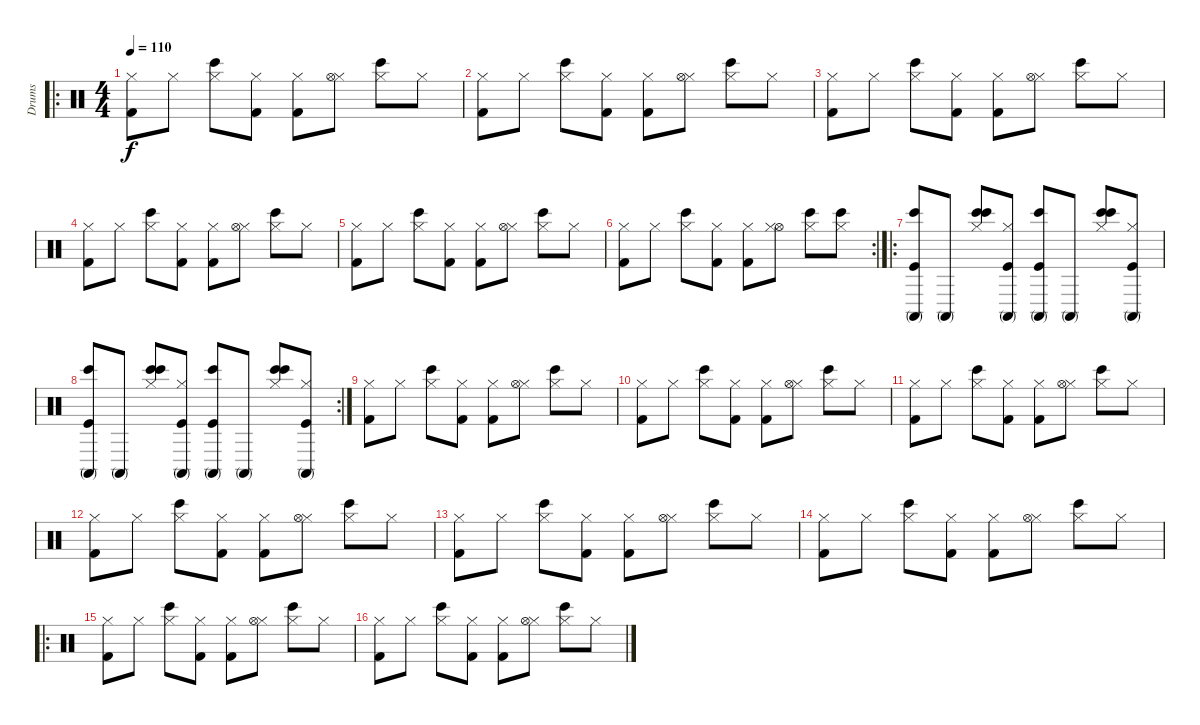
\track ("Drums" "Drums") {instrument percussion}
\staff {score}
\articulation defaults
\ro
\ts (4 4)
\tempo 110
\clef neutral
\ks c
("Kick (hit) 2" "Hi-Hat (closed)").8{dy f} "Hi-Hat (closed)".8 ("Bongo High (hit)" "Hi-Hat (closed)").8 ("Kick (hit) 2" "Hi-Hat (closed)").8 ("Kick (hit) 2" "Hi-Hat (closed)").8 ("Hi-Hat (closed)" "Hi-Hat (open)").8 ("Bongo High (hit)" "Hi-Hat (closed)").8 "Hi-Hat (closed)".8 |
("Kick (hit) 2" "Hi-Hat (closed)").8 "Hi-Hat (closed)".8 ("Bongo High (hit)" "Hi-Hat (closed)").8 ("Kick (hit) 2" "Hi-Hat (closed)").8 ("Kick (hit) 2" "Hi-Hat (closed)").8 ("Hi-Hat (closed)" "Hi-Hat (open)").8 ("Bongo High (hit)" "Hi-Hat (closed)").8 "Hi-Hat (closed)".8 |
("Kick (hit) 2" "Hi-Hat (closed)").8 "Hi-Hat (closed)".8 ("Bongo High (hit)" "Hi-Hat (closed)").8 ("Kick (hit) 2" "Hi-Hat (closed)").8 ("Kick (hit) 2" "Hi-Hat (closed)").8 ("Hi-Hat (closed)" "Hi-Hat (open)").8 ("Bongo High (hit)" "Hi-Hat (closed)").8 "Hi-Hat (closed)".8 |
("Kick (hit) 2" "Hi-Hat (closed)").8 "Hi-Hat (closed)".8 ("Bongo High (hit)" "Hi-Hat (closed)").8 ("Kick (hit) 2" "Hi-Hat (closed)").8 ("Kick (hit) 2" "Hi-Hat (closed)").8 ("Hi-Hat (closed)" "Hi-Hat (open)").8 ("Bongo High (hit)" "Hi-Hat (closed)").8 "Hi-Hat (closed)".8 |
("Kick (hit) 2" "Hi-Hat (closed)").8 "Hi-Hat (closed)".8 ("Bongo High (hit)" "Hi-Hat (closed)").8 ("Kick (hit) 2" "Hi-Hat (closed)").8 ("Kick (hit) 2" "Hi-Hat (closed)").8 ("Hi-Hat (closed)" "Hi-Hat (open)").8 ("Bongo High (hit)" "Hi-Hat (closed)").8 "Hi-Hat (closed)".8 |
\rc 2
("Kick (hit) 2" "Hi-Hat (closed)").8 "Hi-Hat (closed)".8 ("Bongo High (hit)" "Hi-Hat (closed)").8 ("Kick (hit) 2" "Hi-Hat (closed)").8 ("Kick (hit) 2" "Hi-Hat (closed)").8 ("Hi-Hat (open)" "Hi-Hat (closed)").8 ("Bongo High (hit)" "Hi-Hat (closed)").8 ("Bongo High (hit)" "Hi-Hat (closed)").8 |
\ro
("Kick (hit)" "Conga high (mute)" "Bongo High (hit)").8 "Conga high (mute)".8 ("Hi-Hat (closed)" "Bongo High (hit)" "Bongo High (hit)").8 ("Kick (hit)" "Conga high (mute)" "Hi-Hat (closed)").8 ("Kick (hit)" "Conga high (mute)" "Bongo High (hit)").8 "Conga high (mute)".8 ("Bongo High (hit)" "Hi-Hat (closed)" "Bongo High (hit)").8 ("Kick (hit)" "Conga high (mute)" "Hi-Hat (closed)").8 |
\rc 2
("Kick (hit)" "Conga high (mute)" "Bongo High (hit)").8 "Conga high (mute)".8 ("Hi-Hat (closed)" "Bongo High (hit)" "Bongo High (hit)").8 ("Kick (hit)" "Conga high (mute)" "Hi-Hat (closed)").8 ("Kick (hit)" "Conga high (mute)" "Bongo High (hit)").8 "Conga high (mute)".8 ("Bongo High (hit)" "Hi-Hat (closed)" "Bongo High (hit)").8 ("Kick (hit)" "Conga high (mute)" "Hi-Hat (closed)").8 |
("Kick (hit) 2" "Hi-Hat (closed)").8 "Hi-Hat (closed)".8 ("Bongo High (hit)" "Hi-Hat (closed)").8 ("Kick (hit) 2" "Hi-Hat (closed)").8 ("Kick (hit) 2" "Hi-Hat (closed)").8 ("Hi-Hat (closed)" "Hi-Hat (open)").8 ("Bongo High (hit)" "Hi-Hat (closed)").8 "Hi-Hat (closed)".8 |
("Kick (hit) 2" "Hi-Hat (closed)").8 "Hi-Hat (closed)".8 ("Bongo High (hit)" "Hi-Hat (closed)").8 ("Kick (hit) 2" "Hi-Hat (closed)").8 ("Kick (hit) 2" "Hi-Hat (closed)").8 ("Hi-Hat (closed)" "Hi-Hat (open)").8 ("Bongo High (hit)" "Hi-Hat (closed)").8 "Hi-Hat (closed)".8 |
("Kick (hit) 2" "Hi-Hat (closed)").8 "Hi-Hat (closed)".8 ("Bongo High (hit)" "Hi-Hat (closed)").8 ("Kick (hit) 2" "Hi-Hat (closed)").8 ("Kick (hit) 2" "Hi-Hat (closed)").8 ("Hi-Hat (closed)" "Hi-Hat (open)").8 ("Bongo High (hit)" "Hi-Hat (closed)").8 "Hi-Hat (closed)".8 |
("Kick (hit) 2" "Hi-Hat (closed)").8 "Hi-Hat (closed)".8 ("Bongo High (hit)" "Hi-Hat (closed)").8 ("Kick (hit) 2" "Hi-Hat (closed)").8 ("Kick (hit) 2" "Hi-Hat (closed)").8 ("Hi-Hat (closed)" "Hi-Hat (open)").8 ("Bongo High (hit)" "Hi-Hat (closed)").8 "Hi-Hat (closed)".8 |
("Kick (hit) 2" "Hi-Hat (closed)").8 "Hi-Hat (closed)".8 ("Bongo High (hit)" "Hi-Hat (closed)").8 ("Kick (hit) 2" "Hi-Hat (closed)").8 ("Kick (hit) 2" "Hi-Hat (closed)").8 ("Hi-Hat (closed)" "Hi-Hat (open)").8 ("Bongo High (hit)" "Hi-Hat (closed)").8 "Hi-Hat (closed)".8 |
("Kick (hit) 2" "Hi-Hat (closed)").8 "Hi-Hat (closed)".8 ("Bongo High (hit)" "Hi-Hat (closed)").8 ("Kick (hit) 2" "Hi-Hat (closed)").8 ("Kick (hit) 2" "Hi-Hat (closed)").8 ("Hi-Hat (closed)" "Hi-Hat (open)").8 ("Bongo High (hit)" "Hi-Hat (closed)").8 "Hi-Hat (closed)".8 |
\ro
("Kick (hit) 2" "Hi-Hat (closed)").8 "Hi-Hat (closed)".8 ("Bongo High (hit)" "Hi-Hat (closed)").8 ("Kick (hit) 2" "Hi-Hat (closed)").8 ("Kick (hit) 2" "Hi-Hat (closed)").8 ("Hi-Hat (closed)" "Hi-Hat (open)").8 ("Bongo High (hit)" "Hi-Hat (closed)").8 "Hi-Hat (closed)".8 |
("Kick (hit) 2" "Hi-Hat (closed)").8 "Hi-Hat (closed)".8 ("Bongo High (hit)" "Hi-Hat (closed)").8 ("Kick (hit) 2" "Hi-Hat (closed)").8 ("Kick (hit) 2" "Hi-Hat (closed)").8 ("Hi-Hat (closed)" "Hi-Hat (open)").8 ("Bongo High (hit)" "Hi-Hat (closed)").8 "Hi-Hat (closed)".8
